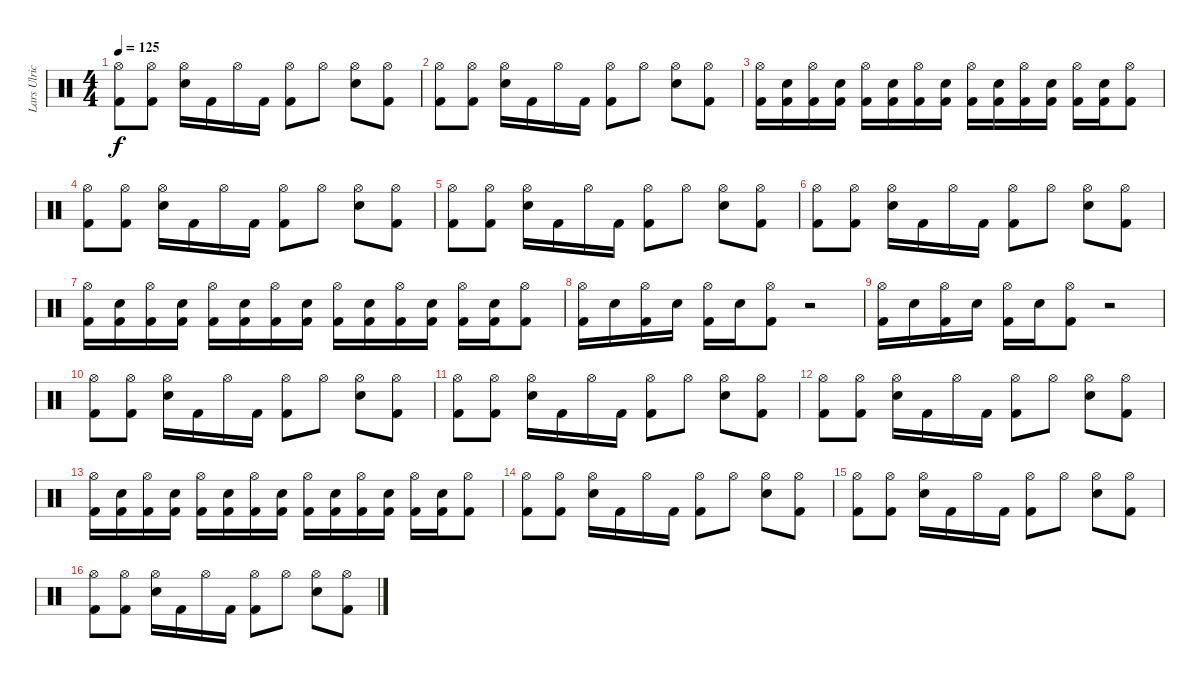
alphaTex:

\track ("Lars Ulrich" "Lars Ulric") {instrument percussion}
\staff {score}
\articulation defaults
\ts (4 4)
\tempo 125
\clef neutral
\ks c
("Hi-Hat (open)" "Kick (hit) 2").8{dy f} ("Hi-Hat (open)" "Kick (hit) 2").8 ("Hi-Hat (open)" "Electric Snare (hit)").16 "Kick (hit) 2".16 "Hi-Hat (open)".16 "Kick (hit) 2".16 ("Hi-Hat (open)" "Kick (hit) 2").8 "Hi-Hat (open)".8 ("Hi-Hat (open)" "Electric Snare (hit)").8 ("Hi-Hat (open)" "Kick (hit) 2").8 |
("Hi-Hat (open)" "Kick (hit) 2").8 ("Hi-Hat (open)" "Kick (hit) 2").8 ("Hi-Hat (open)" "Electric Snare (hit)").16 "Kick (hit) 2".16 "Hi-Hat (open)".16 "Kick (hit) 2".16 ("Hi-Hat (open)" "Kick (hit) 2").8 "Hi-Hat (open)".8 ("Hi-Hat (open)" "Electric Snare (hit)").8 ("Hi-Hat (open)" "Kick (hit) 2").8 |
("Hi-Hat (open)" "Kick (hit) 2").16 ("Electric Snare (hit)" "Kick (hit) 2").16 ("Hi-Hat (open)" "Kick (hit) 2").16 ("Electric Snare (hit)" "Kick (hit) 2").16 ("Hi-Hat (open)" "Kick (hit) 2").16 ("Electric Snare (hit)" "Kick (hit) 2").16 ("Hi-Hat (open)" "Kick (hit) 2").16 ("Electric Snare (hit)" "Kick (hit) 2").16 ("Hi-Hat (open)" "Kick (hit) 2").16 ("Electric Snare (hit)" "Kick (hit) 2").16 ("Hi-Hat (open)" "Kick (hit) 2").16 ("Electric Snare (hit)" "Kick (hit) 2").16 ("Hi-Hat (open)" "Kick (hit) 2").16 ("Electric Snare (hit)" "Kick (hit) 2").16 ("Hi-Hat (open)" "Kick (hit) 2").8 |
("Hi-Hat (open)" "Kick (hit) 2").8 ("Hi-Hat (open)" "Kick (hit) 2").8 ("Hi-Hat (open)" "Electric Snare (hit)").16 "Kick (hit) 2".16 "Hi-Hat (open)".16 "Kick (hit) 2".16 ("Hi-Hat (open)" "Kick (hit) 2").8 "Hi-Hat (open)".8 ("Hi-Hat (open)" "Electric Snare (hit)").8 ("Hi-Hat (open)" "Kick (hit) 2").8 |
("Hi-Hat (open)" "Kick (hit) 2").8 ("Hi-Hat (open)" "Kick (hit) 2").8 ("Hi-Hat (open)" "Electric Snare (hit)").16 "Kick (hit) 2".16 "Hi-Hat (open)".16 "Kick (hit) 2".16 ("Hi-Hat (open)" "Kick (hit) 2").8 "Hi-Hat (open)".8 ("Hi-Hat (open)" "Electric Snare (hit)").8 ("Hi-Hat (open)" "Kick (hit) 2").8 |
("Hi-Hat (open)" "Kick (hit) 2").8 ("Hi-Hat (open)" "Kick (hit) 2").8 ("Hi-Hat (open)" "Electric Snare (hit)").16 "Kick (hit) 2".16 "Hi-Hat (open)".16 "Kick (hit) 2".16 ("Hi-Hat (open)" "Kick (hit) 2").8 "Hi-Hat (open)".8 ("Hi-Hat (open)" "Electric Snare (hit)").8 ("Hi-Hat (open)" "Kick (hit) 2").8 |
("Hi-Hat (open)" "Kick (hit) 2").16 ("Electric Snare (hit)" "Kick (hit) 2").16 ("Hi-Hat (open)" "Kick (hit) 2").16 ("Electric Snare (hit)" "Kick (hit) 2").16 ("Hi-Hat (open)" "Kick (hit) 2").16 ("Electric Snare (hit)" "Kick (hit) 2").16 ("Hi-Hat (open)" "Kick (hit) 2").16 ("Electric Snare (hit)" "Kick (hit) 2").16 ("Hi-Hat (open)" "Kick (hit) 2").16 ("Electric Snare (hit)" "Kick (hit) 2").16 ("Hi-Hat (open)" "Kick (hit) 2").16 ("Electric Snare (hit)" "Kick (hit) 2").16 ("Hi-Hat (open)" "Kick (hit) 2").16 ("Electric Snare (hit)" "Kick (hit) 2").16 ("Hi-Hat (open)" "Kick (hit) 2").8 |
("Hi-Hat (open)" "Kick (hit) 2").16 "Electric Snare (hit)".16 ("Hi-Hat (open)" "Kick (hit) 2").16 "Electric Snare (hit)".16 ("Hi-Hat (open)" "Kick (hit) 2").16 "Electric Snare (hit)".16 ("Hi-Hat (open)" "Kick (hit) 2").8 r.2 |
("Hi-Hat (open)" "Kick (hit) 2").16 "Electric Snare (hit)".16 ("Hi-Hat (open)" "Kick (hit) 2").16 "Electric Snare (hit)".16 ("Hi-Hat (open)" "Kick (hit) 2").16 "Electric Snare (hit)".16 ("Hi-Hat (open)" "Kick (hit) 2").8 r.2 |
("Hi-Hat (open)" "Kick (hit) 2").8 ("Hi-Hat (open)" "Kick (hit) 2").8 ("Hi-Hat (open)" "Electric Snare (hit)").16 "Kick (hit) 2".16 "Hi-Hat (open)".16 "Kick (hit) 2".16 ("Hi-Hat (open)" "Kick (hit) 2").8 "Hi-Hat (open)".8 ("Hi-Hat (open)" "Electric Snare (hit)").8 ("Hi-Hat (open)" "Kick (hit) 2").8 |
("Hi-Hat (open)" "Kick (hit) 2").8 ("Hi-Hat (open)" "Kick (hit) 2").8 ("Hi-Hat (open)" "Electric Snare (hit)").16 "Kick (hit) 2".16 "Hi-Hat (open)".16 "Kick (hit) 2".16 ("Hi-Hat (open)" "Kick (hit) 2").8 "Hi-Hat (open)".8 ("Hi-Hat (open)" "Electric Snare (hit)").8 ("Hi-Hat (open)" "Kick (hit) 2").8 |
("Hi-Hat (open)" "Kick (hit) 2").8 ("Hi-Hat (open)" "Kick (hit) 2").8 ("Hi-Hat (open)" "Electric Snare (hit)").16 "Kick (hit) 2".16 "Hi-Hat (open)".16 "Kick (hit) 2".16 ("Hi-Hat (open)" "Kick (hit) 2").8 "Hi-Hat (open)".8 ("Hi-Hat (open)" "Electric Snare (hit)").8 ("Hi-Hat (open)" "Kick (hit) 2").8 |
("Hi-Hat (open)" "Kick (hit) 2").16 ("Electric Snare (hit)" "Kick (hit) 2").16 ("Hi-Hat (open)" "Kick (hit) 2").16 ("Electric Snare (hit)" "Kick (hit) 2").16 ("Hi-Hat (open)" "Kick (hit) 2").16 ("Electric Snare (hit)" "Kick (hit) 2").16 ("Hi-Hat (open)" "Kick (hit) 2").16 ("Electric Snare (hit)" "Kick (hit) 2").16 ("Hi-Hat (open)" "Kick (hit) 2").16 ("Electric Snare (hit)" "Kick (hit) 2").16 ("Hi-Hat (open)" "Kick (hit) 2").16 ("Electric Snare (hit)" "Kick (hit) 2").16 ("Hi-Hat (open)" "Kick (hit) 2").16 ("Electric Snare (hit)" "Kick (hit) 2").16 ("Hi-Hat (open)" "Kick (hit) 2").8 |
("Hi-Hat (open)" "Kick (hit) 2").8 ("Hi-Hat (open)" "Kick (hit) 2").8 ("Hi-Hat (open)" "Electric Snare (hit)").16 "Kick (hit) 2".16 "Hi-Hat (open)".16 "Kick (hit) 2".16 ("Hi-Hat (open)" "Kick (hit) 2").8 "Hi-Hat (open)".8 ("Hi-Hat (open)" "Electric Snare (hit)").8 ("Hi-Hat (open)" "Kick (hit) 2").8 |
("Hi-Hat (open)" "Kick (hit) 2").8 ("Hi-Hat (open)" "Kick (hit) 2").8 ("Hi-Hat (open)" "Electric Snare (hit)").16 "Kick (hit) 2".16 "Hi-Hat (open)".16 "Kick (hit) 2".16 ("Hi-Hat (open)" "Kick (hit) 2").8 "Hi-Hat (open)".8 ("Hi-Hat (open)" "Electric Snare (hit)").8 ("Hi-Hat (open)" "Kick (hit) 2").8 |
("Hi-Hat (open)" "Kick (hit) 2").8 ("Hi-Hat (open)" "Kick (hit) 2").8 ("Hi-Hat (open)" "Electric Snare (hit)").16 "Kick (hit) 2".16 "Hi-Hat (open)".16 "Kick (hit) 2".16 ("Hi-Hat (open)" "Kick (hit) 2").8 "Hi-Hat (open)".8 ("Hi-Hat (open)" "Electric Snare (hit)").8 ("Hi-Hat (open)" "Kick (hit) 2").8
